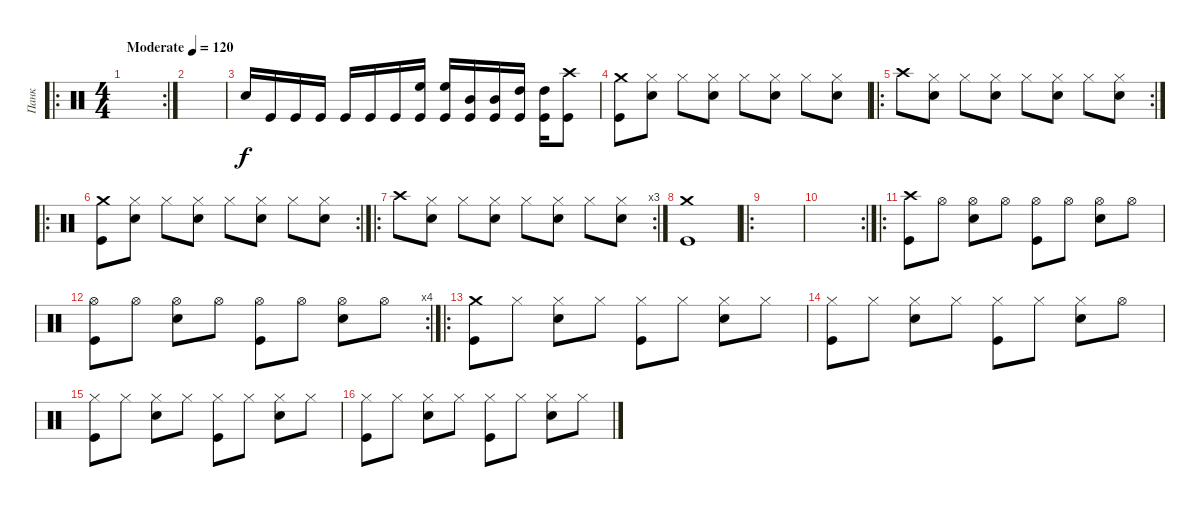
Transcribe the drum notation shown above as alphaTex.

\track ("Панк" "Панк") {instrument percussion}
\staff {score}
\articulation defaults
\ro
\rc 2
\ts (4 4)
\tempo (120 "Moderate")
\clef neutral
\ks c
|
|
"Electric Snare (hit)".16 "Kick (hit)".16 "Kick (hit)".16 "Kick (hit)".16 "Kick (hit)".16 "Kick (hit)".16 "Kick (hit)".16 ("High Floor Tom (hit)" "Kick (hit)").16 ("High Floor Tom (hit)" "Kick (hit)").16 ("Mid Tom (hit)" "Kick (hit)").16 ("Mid Tom (hit)" "Kick (hit)").16 ("High Tom (hit)" "Kick (hit)").16 ("High Tom (hit)" "Kick (hit)").16 ("Crash high (hit)" "Kick (hit)").8 |
("Crash medium (hit)" "Kick (hit)").8 ("Hi-Hat (closed)" "Electric Snare (hit)").8 "Hi-Hat (closed)".8 ("Hi-Hat (closed)" "Electric Snare (hit)").8 "Hi-Hat (closed)".8 ("Hi-Hat (closed)" "Electric Snare (hit)").8 "Hi-Hat (closed)".8 ("Hi-Hat (closed)" "Electric Snare (hit)").8 |
\ro
\rc 2 "Crash high (hit)".8
("Hi-Hat (closed)" "Electric Snare (hit)").8 "Hi-Hat (closed)".8 ("Hi-Hat (closed)" "Electric Snare (hit)").8 "Hi-Hat (closed)".8 ("Hi-Hat (closed)" "Electric Snare (hit)").8 "Hi-Hat (closed)".8 ("Hi-Hat (closed)" "Electric Snare (hit)").8 |
\ro
\rc 2
("Crash medium (hit)" "Kick (hit)").8 ("Hi-Hat (closed)" "Electric Snare (hit)").8 "Hi-Hat (closed)".8 ("Hi-Hat (closed)" "Electric Snare (hit)").8 "Hi-Hat (closed)".8 ("Hi-Hat (closed)" "Electric Snare (hit)").8 "Hi-Hat (closed)".8 ("Hi-Hat (closed)" "Electric Snare (hit)").8 |
\ro
\rc 3 "Crash high (hit)".8
("Hi-Hat (closed)" "Electric Snare (hit)").8 "Hi-Hat (closed)".8 ("Hi-Hat (closed)" "Electric Snare (hit)").8 "Hi-Hat (closed)".8 ("Hi-Hat (closed)" "Electric Snare (hit)").8 "Hi-Hat (closed)".8 ("Hi-Hat (closed)" "Electric Snare (hit)").8 |
("Crash medium (hit)" "Kick (hit)").1 |
\ro
|
\rc 2
|
\ro
("Crash high (hit)" "Kick (hit)").8 "Hi-Hat (open)".8 ("Hi-Hat (open)" "Electric Snare (hit)").8 "Hi-Hat (open)".8 ("Hi-Hat (open)" "Kick (hit)").8 "Hi-Hat (open)".8 ("Hi-Hat (open)" "Electric Snare (hit)").8 "Hi-Hat (open)".8 |
\rc 4
("Hi-Hat (open)" "Kick (hit)").8 "Hi-Hat (open)".8 ("Hi-Hat (open)" "Electric Snare (hit)").8 "Hi-Hat (open)".8 ("Hi-Hat (open)" "Kick (hit)").8 "Hi-Hat (open)".8 ("Hi-Hat (open)" "Electric Snare (hit)").8 "Hi-Hat (open)".8 |
\ro
("Crash medium (hit)" "Kick (hit)").8 "Hi-Hat (closed)".8 ("Hi-Hat (closed)" "Electric Snare (hit)").8 "Hi-Hat (closed)".8 ("Hi-Hat (closed)" "Kick (hit)").8 "Hi-Hat (closed)".8 ("Hi-Hat (closed)" "Electric Snare (hit)").8 "Hi-Hat (closed)".8 |
("Hi-Hat (closed)" "Kick (hit)").8 "Hi-Hat (closed)".8 ("Hi-Hat (closed)" "Electric Snare (hit)").8 "Hi-Hat (closed)".8 ("Hi-Hat (closed)" "Kick (hit)").8 "Hi-Hat (closed)".8 ("Hi-Hat (closed)" "Electric Snare (hit)").8 "Hi-Hat (open)".8 |
("Hi-Hat (closed)" "Kick (hit)").8 "Hi-Hat (closed)".8 ("Hi-Hat (closed)" "Electric Snare (hit)").8 "Hi-Hat (closed)".8 ("Hi-Hat (closed)" "Kick (hit)").8 "Hi-Hat (closed)".8 ("Hi-Hat (closed)" "Electric Snare (hit)").8 "Hi-Hat (closed)".8 |
("Hi-Hat (closed)" "Kick (hit)").8 "Hi-Hat (closed)".8 ("Hi-Hat (closed)" "Electric Snare (hit)").8 "Hi-Hat (closed)".8 ("Hi-Hat (closed)" "Kick (hit)").8 "Hi-Hat (closed)".8 ("Hi-Hat (closed)" "Electric Snare (hit)").8 "Hi-Hat (closed)".8
